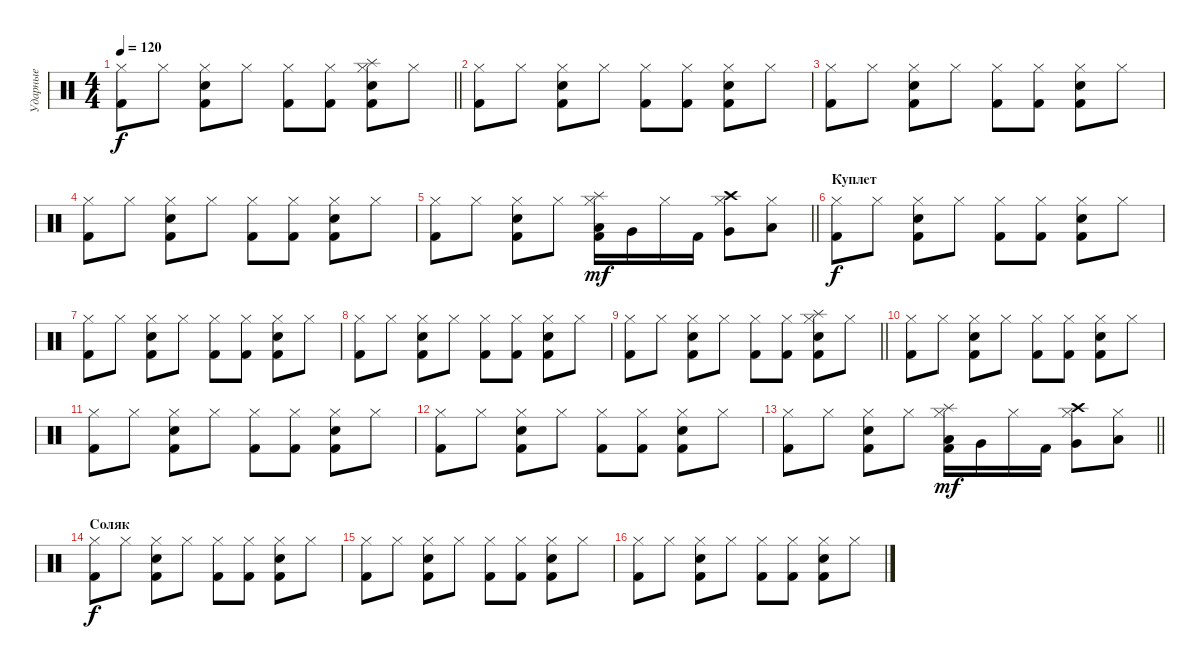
\track ("Ударные" "Ударные") {solo instrument percussion}
\staff {score}
\articulation defaults
\ts (4 4)
\tempo 120
\clef neutral
\barLineRight lightlight
\ks c
("Hi-Hat (closed)" "Kick (hit) 2").8{dy f} "Hi-Hat (closed)".8 ("Hi-Hat (closed)" "Kick (hit) 2" "Electric Snare (hit)").8 "Hi-Hat (closed)".8 ("Hi-Hat (closed)" "Kick (hit) 2").8 ("Hi-Hat (closed)" "Kick (hit) 2").8 ("Hi-Hat (closed)" "Kick (hit) 2" "Electric Snare (hit)" "Splash (hit)").8 "Hi-Hat (closed)".8 |
("Hi-Hat (closed)" "Kick (hit) 2").8 "Hi-Hat (closed)".8 ("Hi-Hat (closed)" "Kick (hit) 2" "Electric Snare (hit)").8 "Hi-Hat (closed)".8 ("Hi-Hat (closed)" "Kick (hit) 2").8 ("Hi-Hat (closed)" "Kick (hit) 2").8 ("Hi-Hat (closed)" "Kick (hit) 2" "Electric Snare (hit)").8 "Hi-Hat (closed)".8 |
("Hi-Hat (closed)" "Kick (hit) 2").8 "Hi-Hat (closed)".8 ("Hi-Hat (closed)" "Kick (hit) 2" "Electric Snare (hit)").8 "Hi-Hat (closed)".8 ("Hi-Hat (closed)" "Kick (hit) 2").8 ("Hi-Hat (closed)" "Kick (hit) 2").8 ("Hi-Hat (closed)" "Kick (hit) 2" "Electric Snare (hit)").8 "Hi-Hat (closed)".8 |
("Hi-Hat (closed)" "Kick (hit) 2").8 "Hi-Hat (closed)".8 ("Hi-Hat (closed)" "Kick (hit) 2" "Electric Snare (hit)").8 "Hi-Hat (closed)".8 ("Hi-Hat (closed)" "Kick (hit) 2").8 ("Hi-Hat (closed)" "Kick (hit) 2").8 ("Hi-Hat (closed)" "Kick (hit) 2" "Electric Snare (hit)").8 "Hi-Hat (closed)".8 |
\barLineRight lightlight
("Hi-Hat (closed)" "Kick (hit) 2").8 "Hi-Hat (closed)".8 ("Hi-Hat (closed)" "Kick (hit) 2" "Electric Snare (hit)").8 "Hi-Hat (closed)".8 ("Low Tom (hit)" "Hi-Hat (closed)" "Kick (hit) 2" "Splash (hit)").16{dy mf} "Very Low Tom (hit)".16 "Hi-Hat (closed)".16 "Kick (hit) 2".16 ("Very Low Tom (hit)" "Hi-Hat (closed)" "Crash high (hit)").8 ("Low Floor Tom (hit)" "Hi-Hat (closed)").8 |
\section ("" "Куплет")
("Hi-Hat (closed)" "Kick (hit) 2").8{dy f} "Hi-Hat (closed)".8 ("Hi-Hat (closed)" "Kick (hit) 2" "Electric Snare (hit)").8 "Hi-Hat (closed)".8 ("Hi-Hat (closed)" "Kick (hit) 2").8 ("Hi-Hat (closed)" "Kick (hit) 2").8 ("Hi-Hat (closed)" "Kick (hit) 2" "Electric Snare (hit)").8 "Hi-Hat (closed)".8 |
("Hi-Hat (closed)" "Kick (hit) 2").8 "Hi-Hat (closed)".8 ("Hi-Hat (closed)" "Kick (hit) 2" "Electric Snare (hit)").8 "Hi-Hat (closed)".8 ("Hi-Hat (closed)" "Kick (hit) 2").8 ("Hi-Hat (closed)" "Kick (hit) 2").8 ("Hi-Hat (closed)" "Kick (hit) 2" "Electric Snare (hit)").8 "Hi-Hat (closed)".8 |
("Hi-Hat (closed)" "Kick (hit) 2").8 "Hi-Hat (closed)".8 ("Hi-Hat (closed)" "Kick (hit) 2" "Electric Snare (hit)").8 "Hi-Hat (closed)".8 ("Hi-Hat (closed)" "Kick (hit) 2").8 ("Hi-Hat (closed)" "Kick (hit) 2").8 ("Hi-Hat (closed)" "Kick (hit) 2" "Electric Snare (hit)").8 "Hi-Hat (closed)".8 |
\barLineRight lightlight
("Hi-Hat (closed)" "Kick (hit) 2").8 "Hi-Hat (closed)".8 ("Hi-Hat (closed)" "Kick (hit) 2" "Electric Snare (hit)").8 "Hi-Hat (closed)".8 ("Hi-Hat (closed)" "Kick (hit) 2").8 ("Hi-Hat (closed)" "Kick (hit) 2").8 ("Hi-Hat (closed)" "Kick (hit) 2" "Electric Snare (hit)" "Splash (hit)").8 "Hi-Hat (closed)".8 |
("Hi-Hat (closed)" "Kick (hit) 2").8 "Hi-Hat (closed)".8 ("Hi-Hat (closed)" "Kick (hit) 2" "Electric Snare (hit)").8 "Hi-Hat (closed)".8 ("Hi-Hat (closed)" "Kick (hit) 2").8 ("Hi-Hat (closed)" "Kick (hit) 2").8 ("Hi-Hat (closed)" "Kick (hit) 2" "Electric Snare (hit)").8 "Hi-Hat (closed)".8 |
("Hi-Hat (closed)" "Kick (hit) 2").8 "Hi-Hat (closed)".8 ("Hi-Hat (closed)" "Kick (hit) 2" "Electric Snare (hit)").8 "Hi-Hat (closed)".8 ("Hi-Hat (closed)" "Kick (hit) 2").8 ("Hi-Hat (closed)" "Kick (hit) 2").8 ("Hi-Hat (closed)" "Kick (hit) 2" "Electric Snare (hit)").8 "Hi-Hat (closed)".8 |
("Hi-Hat (closed)" "Kick (hit) 2").8 "Hi-Hat (closed)".8 ("Hi-Hat (closed)" "Kick (hit) 2" "Electric Snare (hit)").8 "Hi-Hat (closed)".8 ("Hi-Hat (closed)" "Kick (hit) 2").8 ("Hi-Hat (closed)" "Kick (hit) 2").8 ("Hi-Hat (closed)" "Kick (hit) 2" "Electric Snare (hit)").8 "Hi-Hat (closed)".8 |
\barLineRight lightlight
("Hi-Hat (closed)" "Kick (hit) 2").8 "Hi-Hat (closed)".8 ("Hi-Hat (closed)" "Kick (hit) 2" "Electric Snare (hit)").8 "Hi-Hat (closed)".8 ("Low Tom (hit)" "Hi-Hat (closed)" "Kick (hit) 2" "Splash (hit)").16{dy mf} "Very Low Tom (hit)".16 "Hi-Hat (closed)".16 "Kick (hit) 2".16 ("Very Low Tom (hit)" "Hi-Hat (closed)" "Crash high (hit)").8 ("Low Floor Tom (hit)" "Hi-Hat (closed)").8 |
\section ("" "Соляк")
("Hi-Hat (closed)" "Kick (hit) 2").8{dy f} "Hi-Hat (closed)".8 ("Hi-Hat (closed)" "Kick (hit) 2" "Electric Snare (hit)").8 "Hi-Hat (closed)".8 ("Hi-Hat (closed)" "Kick (hit) 2").8 ("Hi-Hat (closed)" "Kick (hit) 2").8 ("Hi-Hat (closed)" "Kick (hit) 2" "Electric Snare (hit)").8 "Hi-Hat (closed)".8 |
("Hi-Hat (closed)" "Kick (hit) 2").8 "Hi-Hat (closed)".8 ("Hi-Hat (closed)" "Kick (hit) 2" "Electric Snare (hit)").8 "Hi-Hat (closed)".8 ("Hi-Hat (closed)" "Kick (hit) 2").8 ("Hi-Hat (closed)" "Kick (hit) 2").8 ("Hi-Hat (closed)" "Kick (hit) 2" "Electric Snare (hit)").8 "Hi-Hat (closed)".8 |
("Hi-Hat (closed)" "Kick (hit) 2").8 "Hi-Hat (closed)".8 ("Hi-Hat (closed)" "Kick (hit) 2" "Electric Snare (hit)").8 "Hi-Hat (closed)".8 ("Hi-Hat (closed)" "Kick (hit) 2").8 ("Hi-Hat (closed)" "Kick (hit) 2").8 ("Hi-Hat (closed)" "Kick (hit) 2" "Electric Snare (hit)").8 "Hi-Hat (closed)".8
